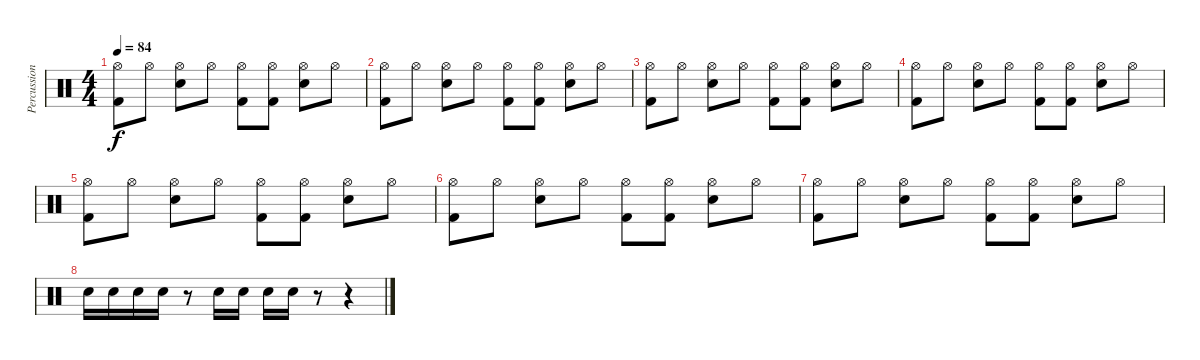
\track ("Percussion" "Percussion") {instrument percussion}
\staff {score}
\articulation defaults
\ts (4 4)
\tempo 84
\clef neutral
\ks c
("Kick (hit) 2" "Hi-Hat (open)").8{dy f} "Hi-Hat (open)".8 ("Electric Snare (hit)" "Hi-Hat (open)").8 "Hi-Hat (open)".8 ("Kick (hit) 2" "Hi-Hat (open)").8 ("Kick (hit) 2" "Hi-Hat (open)").8 ("Electric Snare (hit)" "Hi-Hat (open)").8 "Hi-Hat (open)".8 |
("Kick (hit) 2" "Hi-Hat (open)").8 "Hi-Hat (open)".8 ("Electric Snare (hit)" "Hi-Hat (open)").8 "Hi-Hat (open)".8 ("Kick (hit) 2" "Hi-Hat (open)").8 ("Kick (hit) 2" "Hi-Hat (open)").8 ("Electric Snare (hit)" "Hi-Hat (open)").8 "Hi-Hat (open)".8 |
("Kick (hit) 2" "Hi-Hat (open)").8 "Hi-Hat (open)".8 ("Electric Snare (hit)" "Hi-Hat (open)").8 "Hi-Hat (open)".8 ("Kick (hit) 2" "Hi-Hat (open)").8 ("Kick (hit) 2" "Hi-Hat (open)").8 ("Electric Snare (hit)" "Hi-Hat (open)").8 "Hi-Hat (open)".8 |
("Kick (hit) 2" "Hi-Hat (open)").8 "Hi-Hat (open)".8 ("Electric Snare (hit)" "Hi-Hat (open)").8 "Hi-Hat (open)".8 ("Kick (hit) 2" "Hi-Hat (open)").8 ("Kick (hit) 2" "Hi-Hat (open)").8 ("Electric Snare (hit)" "Hi-Hat (open)").8 "Hi-Hat (open)".8 |
("Kick (hit) 2" "Hi-Hat (open)").8 "Hi-Hat (open)".8 ("Electric Snare (hit)" "Hi-Hat (open)").8 "Hi-Hat (open)".8 ("Kick (hit) 2" "Hi-Hat (open)").8 ("Kick (hit) 2" "Hi-Hat (open)").8 ("Electric Snare (hit)" "Hi-Hat (open)").8 "Hi-Hat (open)".8 |
("Kick (hit) 2" "Hi-Hat (open)").8 "Hi-Hat (open)".8 ("Electric Snare (hit)" "Hi-Hat (open)").8 "Hi-Hat (open)".8 ("Kick (hit) 2" "Hi-Hat (open)").8 ("Kick (hit) 2" "Hi-Hat (open)").8 ("Electric Snare (hit)" "Hi-Hat (open)").8 "Hi-Hat (open)".8 |
("Kick (hit) 2" "Hi-Hat (open)").8 "Hi-Hat (open)".8 ("Electric Snare (hit)" "Hi-Hat (open)").8 "Hi-Hat (open)".8 ("Kick (hit) 2" "Hi-Hat (open)").8 ("Kick (hit) 2" "Hi-Hat (open)").8 ("Electric Snare (hit)" "Hi-Hat (open)").8 "Hi-Hat (open)".8 |
"Electric Snare (hit)".16 "Electric Snare (hit)".16 "Electric Snare (hit)".16 "Electric Snare (hit)".16 r.8 "Electric Snare (hit)".16 "Electric Snare (hit)".16 "Electric Snare (hit)".16 "Electric Snare (hit)".16 r.8 r.4
